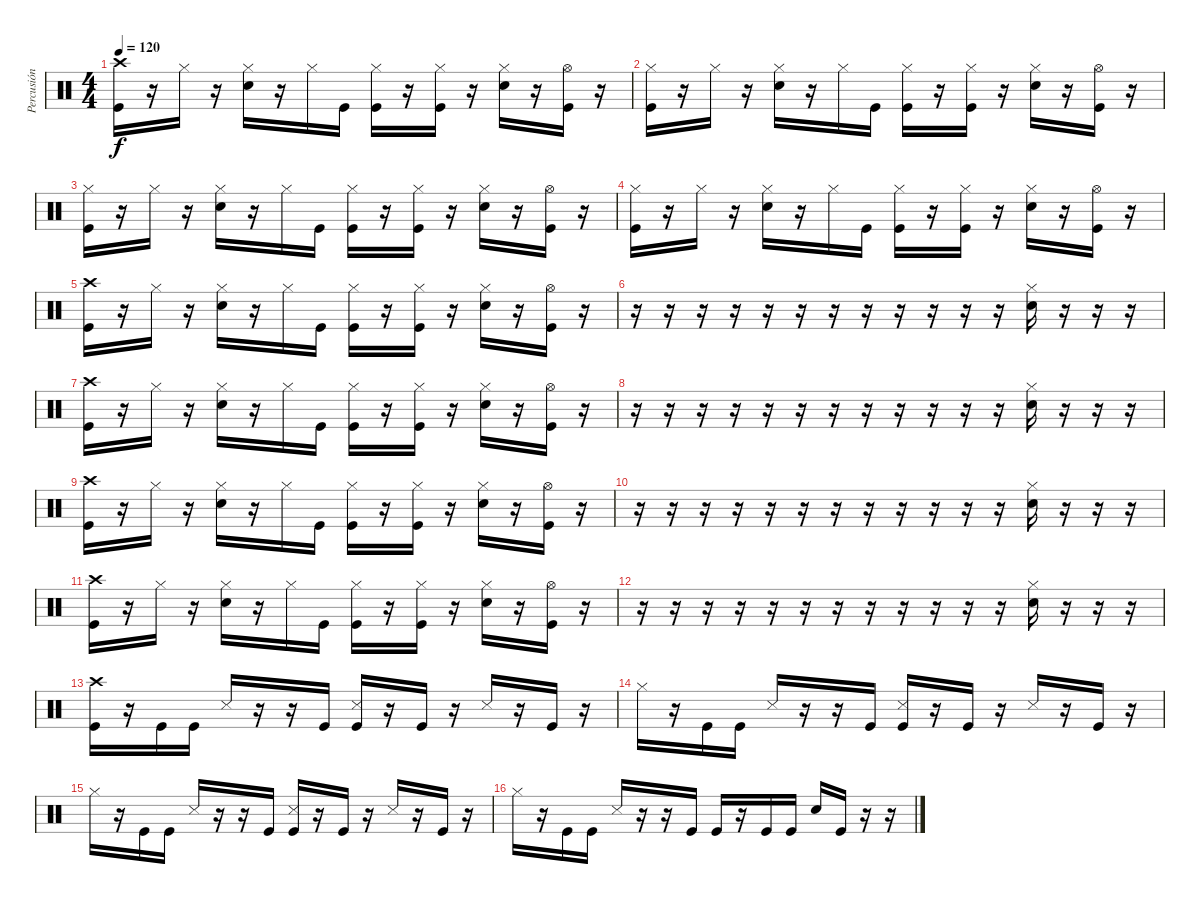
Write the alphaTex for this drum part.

\track ("Percusión" "Percusión") {instrument percussion}
\staff {score}
\articulation defaults
\ts (4 4)
\tempo 120
\clef neutral
\ks c
("Kick (hit)" "Crash high (hit)").16{dy f} r.16 "Hi-Hat (closed)".16 r.16 ("Snare (hit) 2" "Hi-Hat (closed)").16 r.16 "Hi-Hat (closed)".16 "Kick (hit)".16 ("Kick (hit)" "Hi-Hat (closed)").16 r.16 ("Kick (hit)" "Hi-Hat (closed)").16 r.16 ("Snare (hit) 2" "Hi-Hat (closed)").16 r.16 ("Kick (hit)" "Hi-Hat (open)").16 r.16 |
("Kick (hit)" "Hi-Hat (closed)").16 r.16 "Hi-Hat (closed)".16 r.16 ("Snare (hit) 2" "Hi-Hat (closed)").16 r.16 "Hi-Hat (closed)".16 "Kick (hit)".16 ("Kick (hit)" "Hi-Hat (closed)").16 r.16 ("Kick (hit)" "Hi-Hat (closed)").16 r.16 ("Snare (hit) 2" "Hi-Hat (closed)").16 r.16 ("Kick (hit)" "Hi-Hat (open)").16 r.16 |
("Kick (hit)" "Hi-Hat (closed)").16 r.16 "Hi-Hat (closed)".16 r.16 ("Snare (hit) 2" "Hi-Hat (closed)").16 r.16 "Hi-Hat (closed)".16 "Kick (hit)".16 ("Kick (hit)" "Hi-Hat (closed)").16 r.16 ("Kick (hit)" "Hi-Hat (closed)").16 r.16 ("Snare (hit) 2" "Hi-Hat (closed)").16 r.16 ("Kick (hit)" "Hi-Hat (open)").16 r.16 |
("Kick (hit)" "Hi-Hat (closed)").16 r.16 "Hi-Hat (closed)".16 r.16 ("Snare (hit) 2" "Hi-Hat (closed)").16 r.16 "Hi-Hat (closed)".16 "Kick (hit)".16 ("Kick (hit)" "Hi-Hat (closed)").16 r.16 ("Kick (hit)" "Hi-Hat (closed)").16 r.16 ("Snare (hit) 2" "Hi-Hat (closed)").16 r.16 ("Kick (hit)" "Hi-Hat (open)").16 r.16 |
("Kick (hit)" "Crash high (hit)").16 r.16 "Hi-Hat (closed)".16 r.16 ("Snare (hit) 2" "Hi-Hat (closed)").16 r.16 "Hi-Hat (closed)".16 "Kick (hit)".16 ("Kick (hit)" "Hi-Hat (closed)").16 r.16 ("Kick (hit)" "Hi-Hat (closed)").16 r.16 ("Snare (hit) 2" "Hi-Hat (closed)").16 r.16 ("Kick (hit)" "Hi-Hat (open)").16 r.16 |
r.16 r.16 r.16 r.16 r.16 r.16 r.16 r.16 r.16 r.16 r.16 r.16 ("Snare (hit) 2" "Hi-Hat (closed)").16 r.16 r.16 r.16 |
("Kick (hit)" "Crash high (hit)").16 r.16 "Hi-Hat (closed)".16 r.16 ("Snare (hit) 2" "Hi-Hat (closed)").16 r.16 "Hi-Hat (closed)".16 "Kick (hit)".16 ("Kick (hit)" "Hi-Hat (closed)").16 r.16 ("Kick (hit)" "Hi-Hat (closed)").16 r.16 ("Snare (hit) 2" "Hi-Hat (closed)").16 r.16 ("Kick (hit)" "Hi-Hat (open)").16 r.16 |
r.16 r.16 r.16 r.16 r.16 r.16 r.16 r.16 r.16 r.16 r.16 r.16 ("Snare (hit) 2" "Hi-Hat (closed)").16 r.16 r.16 r.16 |
("Kick (hit)" "Crash high (hit)").16 r.16 "Hi-Hat (closed)".16 r.16 ("Snare (hit) 2" "Hi-Hat (closed)").16 r.16 "Hi-Hat (closed)".16 "Kick (hit)".16 ("Kick (hit)" "Hi-Hat (closed)").16 r.16 ("Kick (hit)" "Hi-Hat (closed)").16 r.16 ("Snare (hit) 2" "Hi-Hat (closed)").16 r.16 ("Kick (hit)" "Hi-Hat (open)").16 r.16 |
r.16 r.16 r.16 r.16 r.16 r.16 r.16 r.16 r.16 r.16 r.16 r.16 ("Snare (hit) 2" "Hi-Hat (closed)").16 r.16 r.16 r.16 |
("Kick (hit)" "Crash high (hit)").16 r.16 "Hi-Hat (closed)".16 r.16 ("Snare (hit) 2" "Hi-Hat (closed)").16 r.16 "Hi-Hat (closed)".16 "Kick (hit)".16 ("Kick (hit)" "Hi-Hat (closed)").16 r.16 ("Kick (hit)" "Hi-Hat (closed)").16 r.16 ("Snare (hit) 2" "Hi-Hat (closed)").16 r.16 ("Kick (hit)" "Hi-Hat (open)").16 r.16 |
r.16 r.16 r.16 r.16 r.16 r.16 r.16 r.16 r.16 r.16 r.16 r.16 ("Snare (hit) 2" "Hi-Hat (closed)").16 r.16 r.16 r.16 |
("Kick (hit)" "Crash high (hit)").16 r.16 "Kick (hit)".16 "Kick (hit)".16 "Snare (side stick) 3".16 r.16 r.16 "Kick (hit)".16 ("Snare (side stick) 3" "Kick (hit)").16 r.16 "Kick (hit)".16 r.16 "Snare (side stick) 3".16 r.16 "Kick (hit)".16 r.16 |
"Hi-Hat (closed)".16 r.16 "Kick (hit)".16 "Kick (hit)".16 "Snare (side stick) 3".16 r.16 r.16 "Kick (hit)".16 ("Snare (side stick) 3" "Kick (hit)").16 r.16 "Kick (hit)".16 r.16 "Snare (side stick) 3".16 r.16 "Kick (hit)".16 r.16 |
"Hi-Hat (closed)".16 r.16 "Kick (hit)".16 "Kick (hit)".16 "Snare (side stick) 3".16 r.16 r.16 "Kick (hit)".16 ("Snare (side stick) 3" "Kick (hit)").16 r.16 "Kick (hit)".16 r.16 "Snare (side stick) 3".16 r.16 "Kick (hit)".16 r.16 |
"Hi-Hat (closed)".16 r.16 "Kick (hit)".16 "Kick (hit)".16 "Snare (side stick) 3".16 r.16 r.16 "Kick (hit)".16 "Kick (hit)".16 r.16 "Kick (hit)".16 "Kick (hit)".16 "Snare (hit) 2".16 "Kick (hit)".16 r.16 r.16
